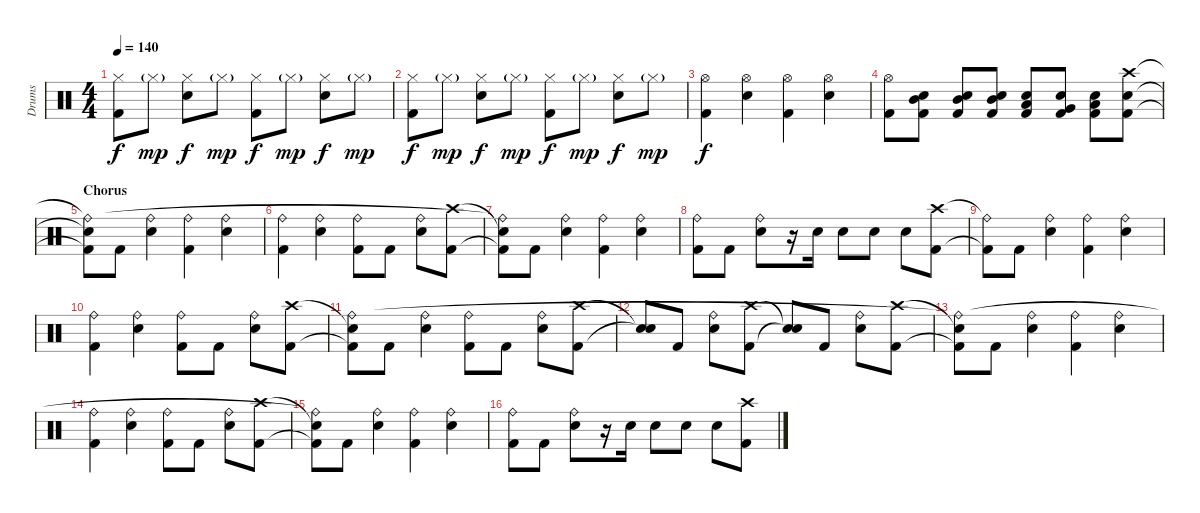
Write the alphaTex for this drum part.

\track ("Drums" "Drums") {instrument percussion}
\staff {score}
\articulation defaults
\ts (4 4)
\tempo 140
\clef neutral
\ks c
("Hi-Hat (closed)" "Kick (hit) 2").8{dy f} "Hi-Hat (closed)"{g}.8{dy mp} ("Hi-Hat (closed)" "Electric Snare (hit)").8{dy f} "Hi-Hat (closed)"{g}.8{dy mp} ("Hi-Hat (closed)" "Kick (hit) 2").8{dy f} "Hi-Hat (closed)"{g}.8{dy mp} ("Hi-Hat (closed)" "Electric Snare (hit)").8{dy f} "Hi-Hat (closed)"{g}.8{dy mp} |
("Hi-Hat (closed)" "Kick (hit) 2").8{dy f} "Hi-Hat (closed)"{g}.8{dy mp} ("Hi-Hat (closed)" "Electric Snare (hit)").8{dy f} "Hi-Hat (closed)"{g}.8{dy mp} ("Hi-Hat (closed)" "Kick (hit) 2").8{dy f} "Hi-Hat (closed)"{g}.8{dy mp} ("Hi-Hat (closed)" "Electric Snare (hit)").8{dy f} "Hi-Hat (closed)"{g}.8{dy mp} |
("Hi-Hat (open)" "Kick (hit) 2").4{dy f} ("Hi-Hat (open)" "Electric Snare (hit)").4 ("Hi-Hat (open)" "Kick (hit) 2").4 ("Hi-Hat (open)" "Electric Snare (hit)").4 |
("Hi-Hat (open)" "Kick (hit) 2").8 ("Kick (hit) 2" "Electric Snare (hit)" "Mid Tom (hit)").8 ("Kick (hit) 2" "Electric Snare (hit)" "Mid Tom (hit)").8 ("Kick (hit) 2" "Electric Snare (hit)" "Mid Tom (hit)").8 ("Low Tom (hit)" "Electric Snare (hit)" "Kick (hit) 2").8 ("Very Low Tom (hit)" "Electric Snare (hit)" "Kick (hit) 2").8 ("Low Floor Tom (hit)" "Electric Snare (hit)" "Kick (hit) 2").8 ("Kick (hit) 2" "Electric Snare (hit)" "Crash high (hit)").8 |
\section ("" "Chorus")
("Kick (hit) 2"{t} "Snare (hit)"{t} "Ride (bell)"{t}).8 "Kick (hit) 2".8 ("Electric Snare (hit)" "Ride (bell)").4 ("Kick (hit) 2" "Ride (bell)").4 ("Electric Snare (hit)" "Ride (bell)").4 |
("Kick (hit) 2" "Ride (bell)").4 ("Electric Snare (hit)" "Ride (bell)").4 ("Kick (hit) 2" "Ride (bell)").8 "Kick (hit) 2".8 ("Electric Snare (hit)" "Ride (bell)").8 ("Kick (hit) 2" "Crash high (hit)").8 |
("Kick (hit) 2"{t} "Snare (hit)"{t} "Ride (bell)"{t}).8 "Kick (hit) 2".8 ("Electric Snare (hit)" "Ride (bell)").4 ("Kick (hit) 2" "Ride (bell)").4 ("Electric Snare (hit)" "Ride (bell)").4 |
("Kick (hit) 2" "Ride (bell)").8 "Kick (hit) 2".8 ("Electric Snare (hit)" "Ride (bell)").8 r.16 "Electric Snare (hit)".16 "Electric Snare (hit)".8 "Electric Snare (hit)".8 "Electric Snare (hit)".8 ("Kick (hit) 2" "Crash high (hit)").8 |
("Kick (hit) 2"{t} "Ride (bell)"{t}).8 "Kick (hit) 2".8 ("Electric Snare (hit)" "Ride (bell)").4 ("Kick (hit) 2" "Ride (bell)").4 ("Electric Snare (hit)" "Ride (bell)").4 |
("Kick (hit) 2" "Ride (bell)").4 ("Electric Snare (hit)" "Ride (bell)").4 ("Kick (hit) 2" "Ride (bell)").8 "Kick (hit) 2".8 ("Electric Snare (hit)" "Ride (bell)").8 ("Kick (hit) 2" "Crash high (hit)").8 |
("Kick (hit) 2"{t} "Snare (hit)"{t} "Ride (bell)").8 "Kick (hit) 2".8 ("Electric Snare (hit)" "Ride (bell)").4 ("Kick (hit) 2" "Ride (bell)").8 "Kick (hit) 2".8 ("Electric Snare (hit)" "Ride (bell)").8 ("Kick (hit) 2" "Crash high (hit)").8 |
("Snare (hit)"{t} "Snare (hit)"{t}).8 "Kick (hit) 2".8 ("Electric Snare (hit)" "Ride (bell)").8 ("Kick (hit) 2" "Crash high (hit)").8 ("Snare (hit)"{t} "Snare (hit)"{t}).8 "Kick (hit) 2".8 ("Electric Snare (hit)" "Ride (bell)").8 ("Kick (hit) 2" "Crash high (hit)").8 |
("Kick (hit) 2"{t} "Snare (hit)"{t} "Ride (bell)"{t}).8 "Kick (hit) 2".8 ("Electric Snare (hit)" "Ride (bell)").4 ("Kick (hit) 2" "Ride (bell)").4 ("Electric Snare (hit)" "Ride (bell)").4 |
("Kick (hit) 2" "Ride (bell)").4 ("Electric Snare (hit)" "Ride (bell)").4 ("Kick (hit) 2" "Ride (bell)").8 "Kick (hit) 2".8 ("Electric Snare (hit)" "Ride (bell)").8 ("Kick (hit) 2" "Crash high (hit)").8 |
("Kick (hit) 2"{t} "Snare (hit)"{t} "Ride (bell)"{t}).8 "Kick (hit) 2".8 ("Electric Snare (hit)" "Ride (bell)").4 ("Kick (hit) 2" "Ride (bell)").4 ("Electric Snare (hit)" "Ride (bell)").4 |
("Kick (hit) 2" "Ride (bell)").8 "Kick (hit) 2".8 ("Electric Snare (hit)" "Ride (bell)").8 r.16 "Electric Snare (hit)".16 "Electric Snare (hit)".8 "Electric Snare (hit)".8 "Electric Snare (hit)".8 ("Kick (hit) 2" "Crash high (hit)").8
